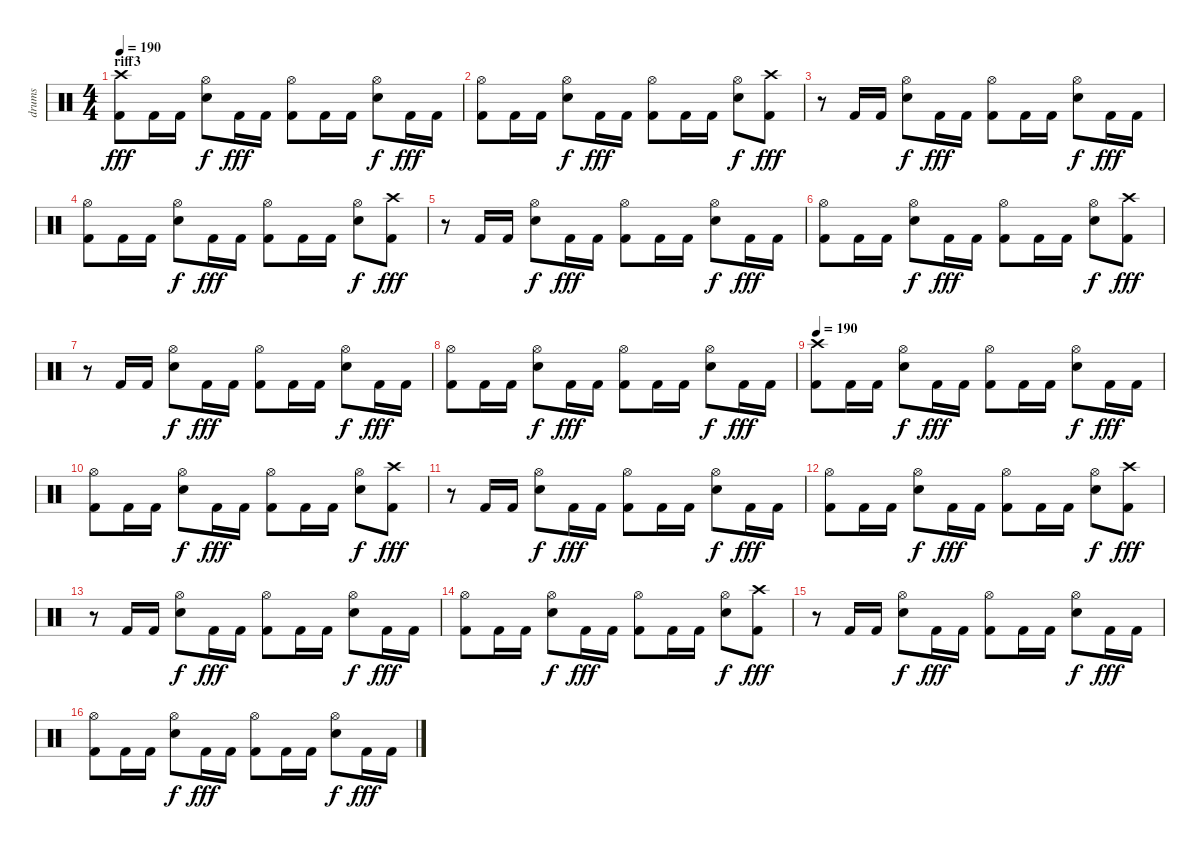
\track ("drums" "drums") {instrument percussion}
\staff {score}
\articulation defaults
\ts (4 4)
\section ("" "riff3")
\tempo 190
\clef neutral
\ks c
("Crash high (hit)" "Kick (hit) 2").8{dy fff} "Kick (hit) 2".16 "Kick (hit) 2".16 ("Hi-Hat (open)" "Snare (hit) 2").8{dy f} "Kick (hit) 2".16{dy fff} "Kick (hit) 2".16 ("Hi-Hat (open)" "Kick (hit) 2").8 "Kick (hit) 2".16 "Kick (hit) 2".16 ("Hi-Hat (open)" "Snare (hit) 2").8{dy f} "Kick (hit) 2".16{dy fff} "Kick (hit) 2".16 |
("Hi-Hat (open)" "Kick (hit) 2").8 "Kick (hit) 2".16 "Kick (hit) 2".16 ("Hi-Hat (open)" "Snare (hit) 2").8{dy f} "Kick (hit) 2".16{dy fff} "Kick (hit) 2".16 ("Hi-Hat (open)" "Kick (hit) 2").8 "Kick (hit) 2".16 "Kick (hit) 2".16 ("Hi-Hat (open)" "Snare (hit) 2").8{dy f} ("Crash high (hit)" "Kick (hit) 2").8{dy fff} |
r.8 "Kick (hit) 2".16 "Kick (hit) 2".16 ("Hi-Hat (open)" "Snare (hit) 2").8{dy f} "Kick (hit) 2".16{dy fff} "Kick (hit) 2".16 ("Hi-Hat (open)" "Kick (hit) 2").8 "Kick (hit) 2".16 "Kick (hit) 2".16 ("Hi-Hat (open)" "Snare (hit) 2").8{dy f} "Kick (hit) 2".16{dy fff} "Kick (hit) 2".16 |
("Hi-Hat (open)" "Kick (hit) 2").8 "Kick (hit) 2".16 "Kick (hit) 2".16 ("Hi-Hat (open)" "Snare (hit) 2").8{dy f} "Kick (hit) 2".16{dy fff} "Kick (hit) 2".16 ("Hi-Hat (open)" "Kick (hit) 2").8 "Kick (hit) 2".16 "Kick (hit) 2".16 ("Hi-Hat (open)" "Snare (hit) 2").8{dy f} ("Crash high (hit)" "Kick (hit) 2").8{dy fff} |
r.8 "Kick (hit) 2".16 "Kick (hit) 2".16 ("Hi-Hat (open)" "Snare (hit) 2").8{dy f} "Kick (hit) 2".16{dy fff} "Kick (hit) 2".16 ("Hi-Hat (open)" "Kick (hit) 2").8 "Kick (hit) 2".16 "Kick (hit) 2".16 ("Hi-Hat (open)" "Snare (hit) 2").8{dy f} "Kick (hit) 2".16{dy fff} "Kick (hit) 2".16 |
("Hi-Hat (open)" "Kick (hit) 2").8 "Kick (hit) 2".16 "Kick (hit) 2".16 ("Hi-Hat (open)" "Snare (hit) 2").8{dy f} "Kick (hit) 2".16{dy fff} "Kick (hit) 2".16 ("Hi-Hat (open)" "Kick (hit) 2").8 "Kick (hit) 2".16 "Kick (hit) 2".16 ("Hi-Hat (open)" "Snare (hit) 2").8{dy f} ("Crash high (hit)" "Kick (hit) 2").8{dy fff} |
r.8 "Kick (hit) 2".16 "Kick (hit) 2".16 ("Hi-Hat (open)" "Snare (hit) 2").8{dy f} "Kick (hit) 2".16{dy fff} "Kick (hit) 2".16 ("Hi-Hat (open)" "Kick (hit) 2").8 "Kick (hit) 2".16 "Kick (hit) 2".16 ("Hi-Hat (open)" "Snare (hit) 2").8{dy f} "Kick (hit) 2".16{dy fff} "Kick (hit) 2".16 |
("Hi-Hat (open)" "Kick (hit) 2").8 "Kick (hit) 2".16 "Kick (hit) 2".16 ("Hi-Hat (open)" "Snare (hit) 2").8{dy f} "Kick (hit) 2".16{dy fff} "Kick (hit) 2".16 ("Hi-Hat (open)" "Kick (hit) 2").8 "Kick (hit) 2".16 "Kick (hit) 2".16 ("Hi-Hat (open)" "Snare (hit) 2").8{dy f} "Kick (hit) 2".16{dy fff} "Kick (hit) 2".16 |
\tempo 190
("Crash high (hit)" "Kick (hit) 2").8 "Kick (hit) 2".16 "Kick (hit) 2".16 ("Hi-Hat (open)" "Snare (hit) 2").8{dy f} "Kick (hit) 2".16{dy fff} "Kick (hit) 2".16 ("Hi-Hat (open)" "Kick (hit) 2").8 "Kick (hit) 2".16 "Kick (hit) 2".16 ("Hi-Hat (open)" "Snare (hit) 2").8{dy f} "Kick (hit) 2".16{dy fff} "Kick (hit) 2".16 |
("Hi-Hat (open)" "Kick (hit) 2").8 "Kick (hit) 2".16 "Kick (hit) 2".16 ("Hi-Hat (open)" "Snare (hit) 2").8{dy f} "Kick (hit) 2".16{dy fff} "Kick (hit) 2".16 ("Hi-Hat (open)" "Kick (hit) 2").8 "Kick (hit) 2".16 "Kick (hit) 2".16 ("Hi-Hat (open)" "Snare (hit) 2").8{dy f} ("Crash high (hit)" "Kick (hit) 2").8{dy fff} |
r.8 "Kick (hit) 2".16 "Kick (hit) 2".16 ("Hi-Hat (open)" "Snare (hit) 2").8{dy f} "Kick (hit) 2".16{dy fff} "Kick (hit) 2".16 ("Hi-Hat (open)" "Kick (hit) 2").8 "Kick (hit) 2".16 "Kick (hit) 2".16 ("Hi-Hat (open)" "Snare (hit) 2").8{dy f} "Kick (hit) 2".16{dy fff} "Kick (hit) 2".16 |
("Hi-Hat (open)" "Kick (hit) 2").8 "Kick (hit) 2".16 "Kick (hit) 2".16 ("Hi-Hat (open)" "Snare (hit) 2").8{dy f} "Kick (hit) 2".16{dy fff} "Kick (hit) 2".16 ("Hi-Hat (open)" "Kick (hit) 2").8 "Kick (hit) 2".16 "Kick (hit) 2".16 ("Hi-Hat (open)" "Snare (hit) 2").8{dy f} ("Crash high (hit)" "Kick (hit) 2").8{dy fff} |
r.8 "Kick (hit) 2".16 "Kick (hit) 2".16 ("Hi-Hat (open)" "Snare (hit) 2").8{dy f} "Kick (hit) 2".16{dy fff} "Kick (hit) 2".16 ("Hi-Hat (open)" "Kick (hit) 2").8 "Kick (hit) 2".16 "Kick (hit) 2".16 ("Hi-Hat (open)" "Snare (hit) 2").8{dy f} "Kick (hit) 2".16{dy fff} "Kick (hit) 2".16 |
("Hi-Hat (open)" "Kick (hit) 2").8 "Kick (hit) 2".16 "Kick (hit) 2".16 ("Hi-Hat (open)" "Snare (hit) 2").8{dy f} "Kick (hit) 2".16{dy fff} "Kick (hit) 2".16 ("Hi-Hat (open)" "Kick (hit) 2").8 "Kick (hit) 2".16 "Kick (hit) 2".16 ("Hi-Hat (open)" "Snare (hit) 2").8{dy f} ("Crash high (hit)" "Kick (hit) 2").8{dy fff} |
r.8 "Kick (hit) 2".16 "Kick (hit) 2".16 ("Hi-Hat (open)" "Snare (hit) 2").8{dy f} "Kick (hit) 2".16{dy fff} "Kick (hit) 2".16 ("Hi-Hat (open)" "Kick (hit) 2").8 "Kick (hit) 2".16 "Kick (hit) 2".16 ("Hi-Hat (open)" "Snare (hit) 2").8{dy f} "Kick (hit) 2".16{dy fff} "Kick (hit) 2".16 |
("Hi-Hat (open)" "Kick (hit) 2").8 "Kick (hit) 2".16 "Kick (hit) 2".16 ("Hi-Hat (open)" "Snare (hit) 2").8{dy f} "Kick (hit) 2".16{dy fff} "Kick (hit) 2".16 ("Hi-Hat (open)" "Kick (hit) 2").8 "Kick (hit) 2".16 "Kick (hit) 2".16 ("Hi-Hat (open)" "Snare (hit) 2").8{dy f} "Kick (hit) 2".16{dy fff} "Kick (hit) 2".16
